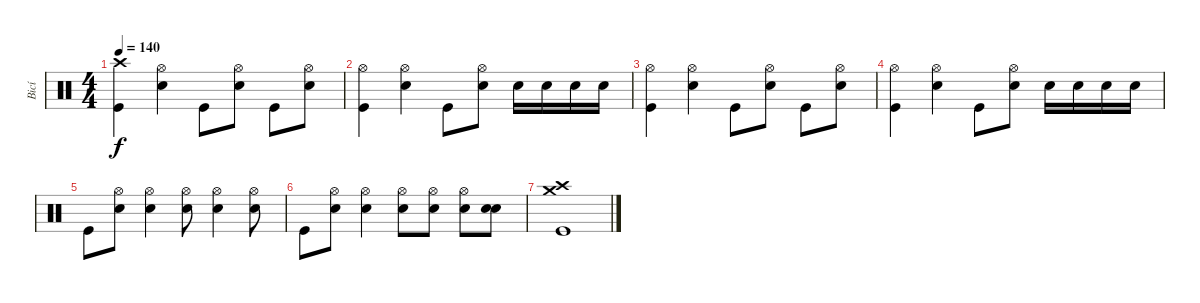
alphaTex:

\track ("Bicí" "Bicí") {instrument percussion}
\staff {score}
\articulation defaults
\ts (4 4)
\tempo 140
\clef neutral
\ks c
("Crash high (hit)" "Kick (hit)").4{dy f} ("Hi-Hat (open)" "Electric Snare (hit)").4 "Kick (hit)".8 ("Hi-Hat (open)" "Electric Snare (hit)").8 "Kick (hit)".8 ("Hi-Hat (open)" "Electric Snare (hit)").8 |
("Hi-Hat (open)" "Kick (hit)").4 ("Hi-Hat (open)" "Electric Snare (hit)").4 "Kick (hit)".8 ("Hi-Hat (open)" "Electric Snare (hit)").8 "Electric Snare (hit)".16 "Electric Snare (hit)".16 "Electric Snare (hit)".16 "Electric Snare (hit)".16 |
("Hi-Hat (open)" "Kick (hit)").4 ("Hi-Hat (open)" "Electric Snare (hit)").4 "Kick (hit)".8 ("Hi-Hat (open)" "Electric Snare (hit)").8 "Kick (hit)".8 ("Hi-Hat (open)" "Electric Snare (hit)").8 |
("Hi-Hat (open)" "Kick (hit)").4 ("Hi-Hat (open)" "Electric Snare (hit)").4 "Kick (hit)".8 ("Hi-Hat (open)" "Electric Snare (hit)").8 "Electric Snare (hit)".16 "Electric Snare (hit)".16 "Electric Snare (hit)".16 "Electric Snare (hit)".16 |
"Kick (hit)".8 ("Hi-Hat (open)" "Electric Snare (hit)").8 ("Hi-Hat (open)" "Electric Snare (hit)").4 ("Hi-Hat (open)" "Electric Snare (hit)").8 ("Hi-Hat (open)" "Electric Snare (hit)").4 ("Hi-Hat (open)" "Electric Snare (hit)").8 |
"Kick (hit)".8 ("Hi-Hat (open)" "Electric Snare (hit)").8 ("Hi-Hat (open)" "Electric Snare (hit)").4 ("Hi-Hat (open)" "Electric Snare (hit)").8 ("Hi-Hat (open)" "Electric Snare (hit)").8 ("Hi-Hat (open)" "Electric Snare (hit)").8 ("Electric Snare (hit)" "Electric Snare (hit)").8 |
("Crash high (hit)" "Crash medium (hit)" "Kick (hit)").1
